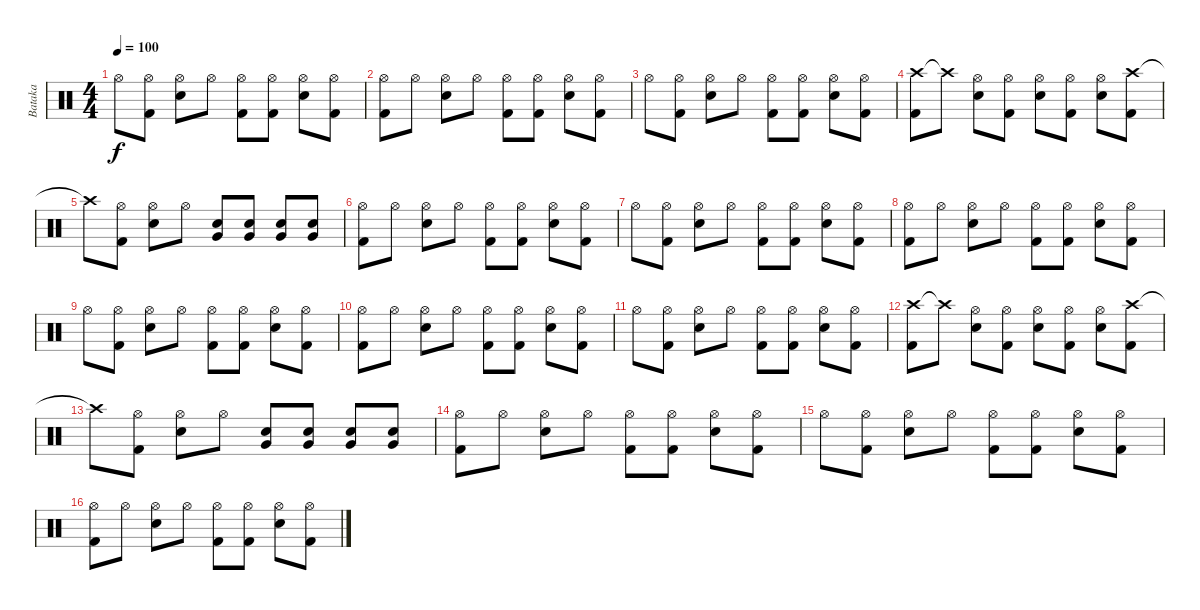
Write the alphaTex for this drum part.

\track ("Bataka" "Bataka") {instrument percussion}
\staff {score}
\articulation defaults
\ts (4 4)
\tempo 100
\clef neutral
\ks c "Hi-Hat (open)".8{dy f}
("Hi-Hat (open)" "Kick (hit) 2").8 ("Hi-Hat (open)" "Snare (hit) 2").8 "Hi-Hat (open)".8 ("Hi-Hat (open)" "Kick (hit) 2").8 ("Hi-Hat (open)" "Kick (hit) 2").8 ("Hi-Hat (open)" "Snare (hit) 2").8 ("Hi-Hat (open)" "Kick (hit) 2").8 |
("Hi-Hat (open)" "Kick (hit) 2").8 "Hi-Hat (open)".8 ("Hi-Hat (open)" "Snare (hit) 2").8 "Hi-Hat (open)".8 ("Hi-Hat (open)" "Kick (hit) 2").8 ("Hi-Hat (open)" "Kick (hit) 2").8 ("Hi-Hat (open)" "Snare (hit) 2").8 ("Hi-Hat (open)" "Kick (hit) 2").8 |
"Hi-Hat (open)".8 ("Hi-Hat (open)" "Kick (hit) 2").8 ("Hi-Hat (open)" "Snare (hit) 2").8 "Hi-Hat (open)".8 ("Hi-Hat (open)" "Kick (hit) 2").8 ("Hi-Hat (open)" "Kick (hit) 2").8 ("Hi-Hat (open)" "Snare (hit) 2").8 ("Hi-Hat (open)" "Kick (hit) 2").8 |
("Crash high (hit)" "Kick (hit) 2").8 "Crash high (hit)"{t}.8 ("Hi-Hat (open)" "Snare (hit) 2").8 ("Hi-Hat (open)" "Kick (hit) 2").8 ("Hi-Hat (open)" "Snare (hit) 2").8 ("Hi-Hat (open)" "Kick (hit) 2").8 ("Hi-Hat (open)" "Snare (hit) 2").8 ("Crash high (hit)" "Kick (hit) 2").8 |
"Crash high (hit)"{t}.8 ("Hi-Hat (open)" "Kick (hit) 2").8 ("Hi-Hat (open)" "Snare (hit) 2").8 "Hi-Hat (open)".8 ("Very Low Tom (hit)" "Snare (hit) 2").8 ("Very Low Tom (hit)" "Snare (hit) 2").8 ("Very Low Tom (hit)" "Snare (hit) 2").8 ("Very Low Tom (hit)" "Snare (hit) 2").8 |
("Hi-Hat (open)" "Kick (hit) 2").8 "Hi-Hat (open)".8 ("Hi-Hat (open)" "Snare (hit) 2").8 "Hi-Hat (open)".8 ("Hi-Hat (open)" "Kick (hit) 2").8 ("Hi-Hat (open)" "Kick (hit) 2").8 ("Hi-Hat (open)" "Snare (hit) 2").8 ("Hi-Hat (open)" "Kick (hit) 2").8 |
"Hi-Hat (open)".8 ("Hi-Hat (open)" "Kick (hit) 2").8 ("Hi-Hat (open)" "Snare (hit) 2").8 "Hi-Hat (open)".8 ("Hi-Hat (open)" "Kick (hit) 2").8 ("Hi-Hat (open)" "Kick (hit) 2").8 ("Hi-Hat (open)" "Snare (hit) 2").8 ("Hi-Hat (open)" "Kick (hit) 2").8 |
("Hi-Hat (open)" "Kick (hit) 2").8 "Hi-Hat (open)".8 ("Hi-Hat (open)" "Snare (hit) 2").8 "Hi-Hat (open)".8 ("Hi-Hat (open)" "Kick (hit) 2").8 ("Hi-Hat (open)" "Kick (hit) 2").8 ("Hi-Hat (open)" "Snare (hit) 2").8 ("Hi-Hat (open)" "Kick (hit) 2").8 |
"Hi-Hat (open)".8 ("Hi-Hat (open)" "Kick (hit) 2").8 ("Hi-Hat (open)" "Snare (hit) 2").8 "Hi-Hat (open)".8 ("Hi-Hat (open)" "Kick (hit) 2").8 ("Hi-Hat (open)" "Kick (hit) 2").8 ("Hi-Hat (open)" "Snare (hit) 2").8 ("Hi-Hat (open)" "Kick (hit) 2").8 |
("Hi-Hat (open)" "Kick (hit) 2").8 "Hi-Hat (open)".8 ("Hi-Hat (open)" "Snare (hit) 2").8 "Hi-Hat (open)".8 ("Hi-Hat (open)" "Kick (hit) 2").8 ("Hi-Hat (open)" "Kick (hit) 2").8 ("Hi-Hat (open)" "Snare (hit) 2").8 ("Hi-Hat (open)" "Kick (hit) 2").8 |
"Hi-Hat (open)".8 ("Hi-Hat (open)" "Kick (hit) 2").8 ("Hi-Hat (open)" "Snare (hit) 2").8 "Hi-Hat (open)".8 ("Hi-Hat (open)" "Kick (hit) 2").8 ("Hi-Hat (open)" "Kick (hit) 2").8 ("Hi-Hat (open)" "Snare (hit) 2").8 ("Hi-Hat (open)" "Kick (hit) 2").8 |
("Crash high (hit)" "Kick (hit) 2").8 "Crash high (hit)"{t}.8 ("Hi-Hat (open)" "Snare (hit) 2").8 ("Hi-Hat (open)" "Kick (hit) 2").8 ("Hi-Hat (open)" "Snare (hit) 2").8 ("Hi-Hat (open)" "Kick (hit) 2").8 ("Hi-Hat (open)" "Snare (hit) 2").8 ("Crash high (hit)" "Kick (hit) 2").8 |
"Crash high (hit)"{t}.8 ("Hi-Hat (open)" "Kick (hit) 2").8 ("Hi-Hat (open)" "Snare (hit) 2").8 "Hi-Hat (open)".8 ("Very Low Tom (hit)" "Snare (hit) 2").8 ("Very Low Tom (hit)" "Snare (hit) 2").8 ("Very Low Tom (hit)" "Snare (hit) 2").8 ("Very Low Tom (hit)" "Snare (hit) 2").8 |
("Hi-Hat (open)" "Kick (hit) 2").8 "Hi-Hat (open)".8 ("Hi-Hat (open)" "Snare (hit) 2").8 "Hi-Hat (open)".8 ("Hi-Hat (open)" "Kick (hit) 2").8 ("Hi-Hat (open)" "Kick (hit) 2").8 ("Hi-Hat (open)" "Snare (hit) 2").8 ("Hi-Hat (open)" "Kick (hit) 2").8 |
"Hi-Hat (open)".8 ("Hi-Hat (open)" "Kick (hit) 2").8 ("Hi-Hat (open)" "Snare (hit) 2").8 "Hi-Hat (open)".8 ("Hi-Hat (open)" "Kick (hit) 2").8 ("Hi-Hat (open)" "Kick (hit) 2").8 ("Hi-Hat (open)" "Snare (hit) 2").8 ("Hi-Hat (open)" "Kick (hit) 2").8 |
("Hi-Hat (open)" "Kick (hit) 2").8 "Hi-Hat (open)".8 ("Hi-Hat (open)" "Snare (hit) 2").8 "Hi-Hat (open)".8 ("Hi-Hat (open)" "Kick (hit) 2").8 ("Hi-Hat (open)" "Kick (hit) 2").8 ("Hi-Hat (open)" "Snare (hit) 2").8 ("Hi-Hat (open)" "Kick (hit) 2").8
